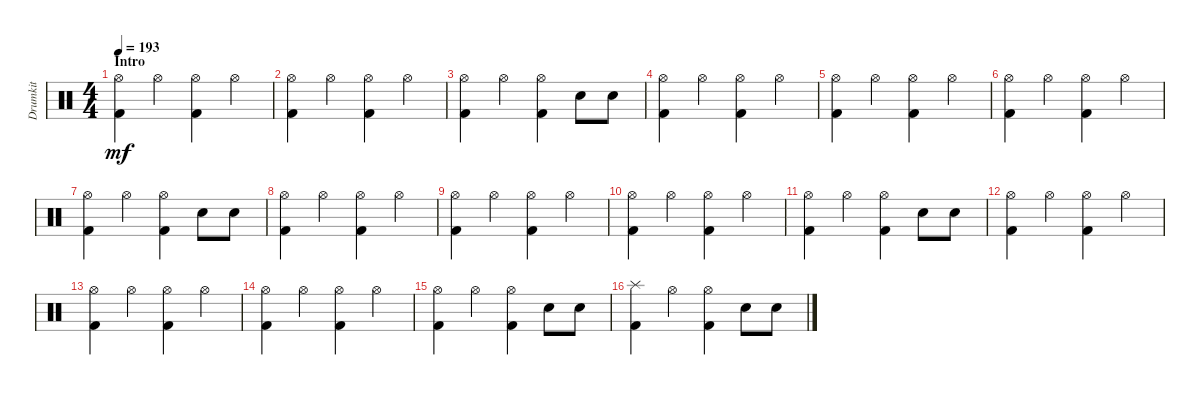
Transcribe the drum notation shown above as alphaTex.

\track ("Drumkit" "Drumkit") {instrument percussion}
\staff {score}
\articulation defaults
\ts (4 4)
\section ("" "Intro")
\tempo 193
\clef neutral
\ks c
("Hi-Hat (open)" "Kick (hit) 2").4{dy mf} "Hi-Hat (open)".4 ("Hi-Hat (open)" "Kick (hit) 2").4 "Hi-Hat (open)".4 |
("Hi-Hat (open)" "Kick (hit) 2").4 "Hi-Hat (open)".4 ("Hi-Hat (open)" "Kick (hit) 2").4 "Hi-Hat (open)".4 |
("Hi-Hat (open)" "Kick (hit) 2").4 "Hi-Hat (open)".4 ("Hi-Hat (open)" "Kick (hit) 2").4 "Snare (hit) 2".8 "Snare (hit) 2".8 |
("Hi-Hat (open)" "Kick (hit) 2").4 "Hi-Hat (open)".4 ("Hi-Hat (open)" "Kick (hit) 2").4 "Hi-Hat (open)".4 |
("Hi-Hat (open)" "Kick (hit) 2").4 "Hi-Hat (open)".4 ("Hi-Hat (open)" "Kick (hit) 2").4 "Hi-Hat (open)".4 |
("Hi-Hat (open)" "Kick (hit) 2").4 "Hi-Hat (open)".4 ("Hi-Hat (open)" "Kick (hit) 2").4 "Hi-Hat (open)".4 |
("Hi-Hat (open)" "Kick (hit) 2").4 "Hi-Hat (open)".4 ("Hi-Hat (open)" "Kick (hit) 2").4 "Snare (hit) 2".8 "Snare (hit) 2".8 |
("Hi-Hat (open)" "Kick (hit) 2").4 "Hi-Hat (open)".4 ("Hi-Hat (open)" "Kick (hit) 2").4 "Hi-Hat (open)".4 |
("Hi-Hat (open)" "Kick (hit) 2").4 "Hi-Hat (open)".4 ("Hi-Hat (open)" "Kick (hit) 2").4 "Hi-Hat (open)".4 |
("Hi-Hat (open)" "Kick (hit) 2").4 "Hi-Hat (open)".4 ("Hi-Hat (open)" "Kick (hit) 2").4 "Hi-Hat (open)".4 |
("Hi-Hat (open)" "Kick (hit) 2").4 "Hi-Hat (open)".4 ("Hi-Hat (open)" "Kick (hit) 2").4 "Snare (hit) 2".8 "Snare (hit) 2".8 |
("Hi-Hat (open)" "Kick (hit) 2").4 "Hi-Hat (open)".4 ("Hi-Hat (open)" "Kick (hit) 2").4 "Hi-Hat (open)".4 |
("Hi-Hat (open)" "Kick (hit) 2").4 "Hi-Hat (open)".4 ("Hi-Hat (open)" "Kick (hit) 2").4 "Hi-Hat (open)".4 |
("Hi-Hat (open)" "Kick (hit) 2").4 "Hi-Hat (open)".4 ("Hi-Hat (open)" "Kick (hit) 2").4 "Hi-Hat (open)".4 |
("Hi-Hat (open)" "Kick (hit) 2").4 "Hi-Hat (open)".4 ("Hi-Hat (open)" "Kick (hit) 2").4 "Snare (hit) 2".8 "Snare (hit) 2".8 |
("Splash (hit)" "Kick (hit) 2").4 "Hi-Hat (open)".4 ("Hi-Hat (open)" "Kick (hit) 2").4 "Snare (hit) 2".8 "Snare (hit) 2".8
